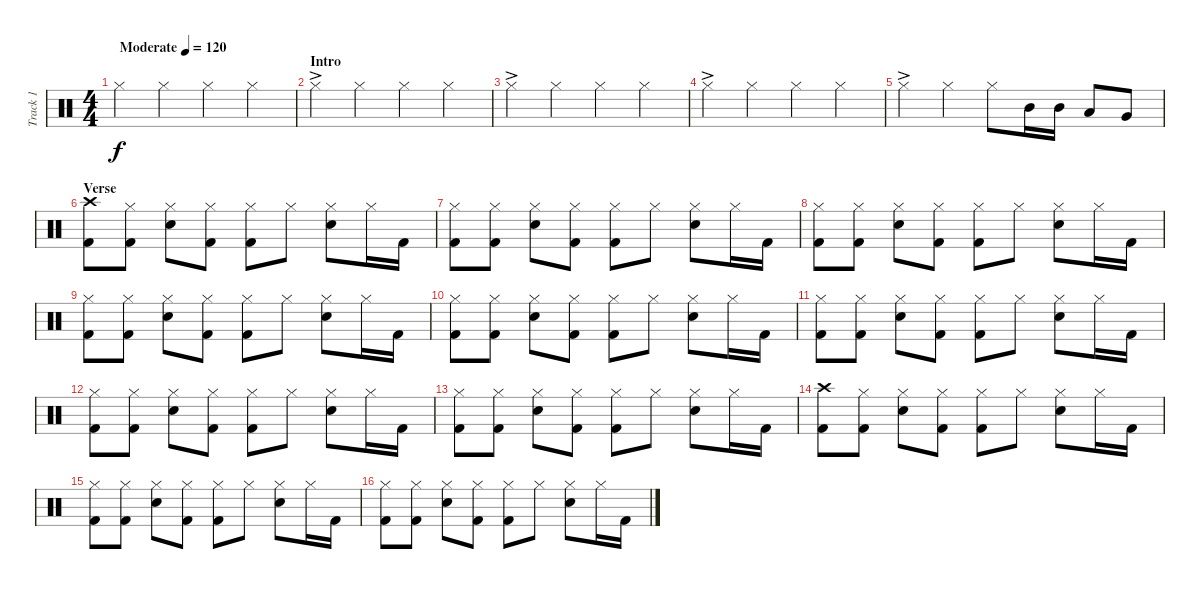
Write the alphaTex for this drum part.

\track ("Track 1" "Track 1") {instrument percussion}
\staff {score}
\articulation defaults
\ts (4 4)
\tempo (120 "Moderate")
\clef neutral
\ks c "Hi-Hat (closed)".4{dy f} "Hi-Hat (closed)".4 "Hi-Hat (closed)".4 "Hi-Hat (closed)".4
|
\section ("" "Intro")
"Hi-Hat (closed)"{ac}.4 "Hi-Hat (closed)".4 "Hi-Hat (closed)".4 "Hi-Hat (closed)".4 |
"Hi-Hat (closed)"{ac}.4 "Hi-Hat (closed)".4 "Hi-Hat (closed)".4 "Hi-Hat (closed)".4 |
"Hi-Hat (closed)"{ac}.4 "Hi-Hat (closed)".4 "Hi-Hat (closed)".4 "Hi-Hat (closed)".4 |
"Hi-Hat (closed)"{ac}.4 "Hi-Hat (closed)".4 "Hi-Hat (closed)".8 "Mid Tom (hit)".16 "Mid Tom (hit)".16 "Low Tom (hit)".8 "Very Low Tom (hit)".8 |
\section ("" "Verse")
("Crash high (hit)" "Kick (hit) 2").8 ("Hi-Hat (closed)" "Kick (hit) 2").8 ("Hi-Hat (closed)" "Snare (hit) 2").8 ("Hi-Hat (closed)" "Kick (hit) 2").8 ("Hi-Hat (closed)" "Kick (hit) 2").8 "Hi-Hat (closed)".8 ("Hi-Hat (closed)" "Snare (hit) 2").8 "Hi-Hat (closed)".16 "Kick (hit) 2".16 |
("Hi-Hat (closed)" "Kick (hit) 2").8 ("Hi-Hat (closed)" "Kick (hit) 2").8 ("Hi-Hat (closed)" "Snare (hit) 2").8 ("Hi-Hat (closed)" "Kick (hit) 2").8 ("Hi-Hat (closed)" "Kick (hit) 2").8 "Hi-Hat (closed)".8 ("Hi-Hat (closed)" "Snare (hit) 2").8 "Hi-Hat (closed)".16 "Kick (hit) 2".16 |
("Hi-Hat (closed)" "Kick (hit) 2").8 ("Hi-Hat (closed)" "Kick (hit) 2").8 ("Hi-Hat (closed)" "Snare (hit) 2").8 ("Hi-Hat (closed)" "Kick (hit) 2").8 ("Hi-Hat (closed)" "Kick (hit) 2").8 "Hi-Hat (closed)".8 ("Hi-Hat (closed)" "Snare (hit) 2").8 "Hi-Hat (closed)".16 "Kick (hit) 2".16 |
("Hi-Hat (closed)" "Kick (hit) 2").8 ("Hi-Hat (closed)" "Kick (hit) 2").8 ("Hi-Hat (closed)" "Snare (hit) 2").8 ("Hi-Hat (closed)" "Kick (hit) 2").8 ("Hi-Hat (closed)" "Kick (hit) 2").8 "Hi-Hat (closed)".8 ("Hi-Hat (closed)" "Snare (hit) 2").8 "Hi-Hat (closed)".16 "Kick (hit) 2".16 |
("Hi-Hat (closed)" "Kick (hit) 2").8 ("Hi-Hat (closed)" "Kick (hit) 2").8 ("Hi-Hat (closed)" "Snare (hit) 2").8 ("Hi-Hat (closed)" "Kick (hit) 2").8 ("Hi-Hat (closed)" "Kick (hit) 2").8 "Hi-Hat (closed)".8 ("Hi-Hat (closed)" "Snare (hit) 2").8 "Hi-Hat (closed)".16 "Kick (hit) 2".16 |
("Hi-Hat (closed)" "Kick (hit) 2").8 ("Hi-Hat (closed)" "Kick (hit) 2").8 ("Hi-Hat (closed)" "Snare (hit) 2").8 ("Hi-Hat (closed)" "Kick (hit) 2").8 ("Hi-Hat (closed)" "Kick (hit) 2").8 "Hi-Hat (closed)".8 ("Hi-Hat (closed)" "Snare (hit) 2").8 "Hi-Hat (closed)".16 "Kick (hit) 2".16 |
("Hi-Hat (closed)" "Kick (hit) 2").8 ("Hi-Hat (closed)" "Kick (hit) 2").8 ("Hi-Hat (closed)" "Snare (hit) 2").8 ("Hi-Hat (closed)" "Kick (hit) 2").8 ("Hi-Hat (closed)" "Kick (hit) 2").8 "Hi-Hat (closed)".8 ("Hi-Hat (closed)" "Snare (hit) 2").8 "Hi-Hat (closed)".16 "Kick (hit) 2".16 |
("Hi-Hat (closed)" "Kick (hit) 2").8 ("Hi-Hat (closed)" "Kick (hit) 2").8 ("Hi-Hat (closed)" "Snare (hit) 2").8 ("Hi-Hat (closed)" "Kick (hit) 2").8 ("Hi-Hat (closed)" "Kick (hit) 2").8 "Hi-Hat (closed)".8 ("Hi-Hat (closed)" "Snare (hit) 2").8 "Hi-Hat (closed)".16 "Kick (hit) 2".16 |
("Crash high (hit)" "Kick (hit) 2").8 ("Hi-Hat (closed)" "Kick (hit) 2").8 ("Hi-Hat (closed)" "Snare (hit) 2").8 ("Hi-Hat (closed)" "Kick (hit) 2").8 ("Hi-Hat (closed)" "Kick (hit) 2").8 "Hi-Hat (closed)".8 ("Hi-Hat (closed)" "Snare (hit) 2").8 "Hi-Hat (closed)".16 "Kick (hit) 2".16 |
("Hi-Hat (closed)" "Kick (hit) 2").8 ("Hi-Hat (closed)" "Kick (hit) 2").8 ("Hi-Hat (closed)" "Snare (hit) 2").8 ("Hi-Hat (closed)" "Kick (hit) 2").8 ("Hi-Hat (closed)" "Kick (hit) 2").8 "Hi-Hat (closed)".8 ("Hi-Hat (closed)" "Snare (hit) 2").8 "Hi-Hat (closed)".16 "Kick (hit) 2".16 |
("Hi-Hat (closed)" "Kick (hit) 2").8 ("Hi-Hat (closed)" "Kick (hit) 2").8 ("Hi-Hat (closed)" "Snare (hit) 2").8 ("Hi-Hat (closed)" "Kick (hit) 2").8 ("Hi-Hat (closed)" "Kick (hit) 2").8 "Hi-Hat (closed)".8 ("Hi-Hat (closed)" "Snare (hit) 2").8 "Hi-Hat (closed)".16 "Kick (hit) 2".16
